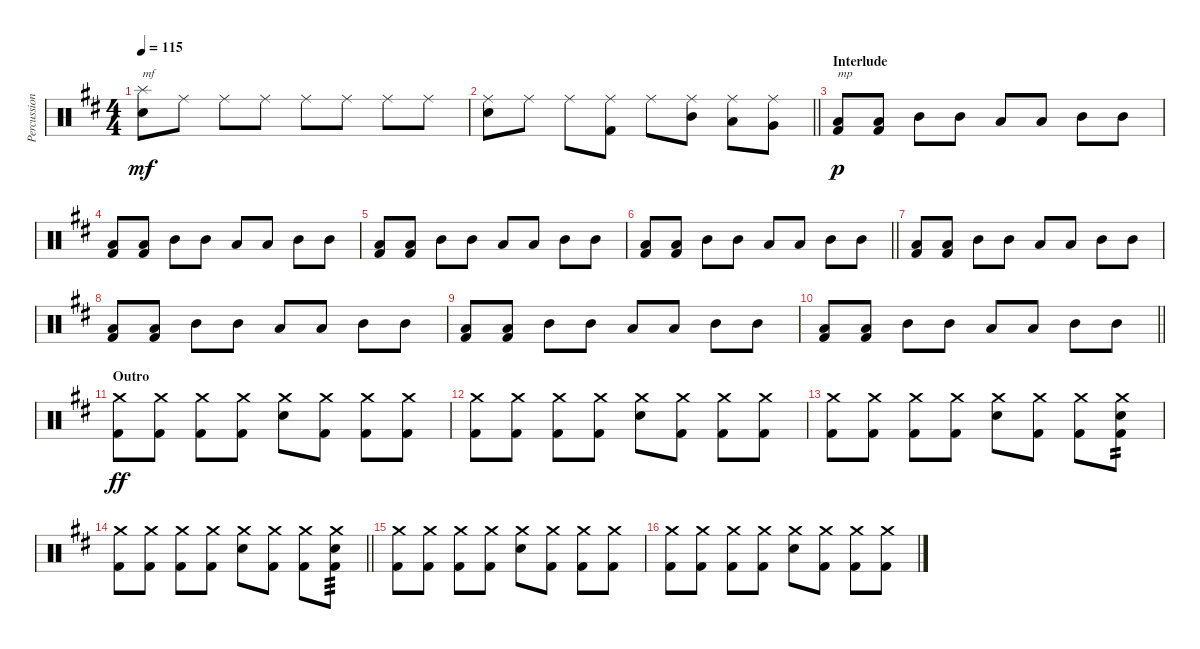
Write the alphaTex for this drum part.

\track ("Percussion" "Percussion") {instrument percussion}
\staff {score}
\articulation defaults
\ts (4 4)
\tempo 115
\clef neutral
\ks bminor
("Splash (hit)" "Snare (hit) 2").8{txt "mf" dy mf} "Ride (middle)".8 "Ride (middle)".8 "Ride (middle)".8 "Ride (middle)".8 "Ride (middle)".8 "Ride (middle)".8 "Ride (middle)".8 |
\barLineRight lightlight
("Ride (middle)" "Snare (hit) 2").8 "Ride (middle)".8 "Ride (middle)".8 ("Ride (middle)" "Kick (hit) 2").8 "Ride (middle)".8 ("Ride (middle)" "Mid Tom (hit)").8 ("Ride (middle)" "Low Tom (hit)").8 ("Ride (middle)" "Very Low Tom (hit)").8 |
\section ("" "Interlude")
("Low Tom (hit)" "Kick (hit) 2").8{txt "mp" dy p} ("Low Tom (hit)" "Kick (hit) 2").8 "Mid Tom (hit)".8 "Mid Tom (hit)".8 "Low Tom (hit)".8 "Low Tom (hit)".8 "Mid Tom (hit)".8 "Mid Tom (hit)".8 |
("Low Tom (hit)" "Kick (hit) 2").8 ("Low Tom (hit)" "Kick (hit) 2").8 "Mid Tom (hit)".8 "Mid Tom (hit)".8 "Low Tom (hit)".8 "Low Tom (hit)".8 "Mid Tom (hit)".8 "Mid Tom (hit)".8 |
("Low Tom (hit)" "Kick (hit) 2").8 ("Low Tom (hit)" "Kick (hit) 2").8 "Mid Tom (hit)".8 "Mid Tom (hit)".8 "Low Tom (hit)".8 "Low Tom (hit)".8 "Mid Tom (hit)".8 "Mid Tom (hit)".8 |
\barLineRight lightlight
("Low Tom (hit)" "Kick (hit) 2").8 ("Low Tom (hit)" "Kick (hit) 2").8 "Mid Tom (hit)".8 "Mid Tom (hit)".8 "Low Tom (hit)".8 "Low Tom (hit)".8 "Mid Tom (hit)".8 "Mid Tom (hit)".8 |
\section ("" "")
("Low Tom (hit)" "Kick (hit) 2").8 ("Low Tom (hit)" "Kick (hit) 2").8 "Mid Tom (hit)".8 "Mid Tom (hit)".8 "Low Tom (hit)".8 "Low Tom (hit)".8 "Mid Tom (hit)".8 "Mid Tom (hit)".8 |
("Low Tom (hit)" "Kick (hit) 2").8 ("Low Tom (hit)" "Kick (hit) 2").8 "Mid Tom (hit)".8 "Mid Tom (hit)".8 "Low Tom (hit)".8 "Low Tom (hit)".8 "Mid Tom (hit)".8 "Mid Tom (hit)".8 |
("Low Tom (hit)" "Kick (hit) 2").8 ("Low Tom (hit)" "Kick (hit) 2").8 "Mid Tom (hit)".8 "Mid Tom (hit)".8 "Low Tom (hit)".8 "Low Tom (hit)".8 "Mid Tom (hit)".8 "Mid Tom (hit)".8 |
\barLineRight lightlight
("Low Tom (hit)" "Kick (hit) 2").8 ("Low Tom (hit)" "Kick (hit) 2").8 "Mid Tom (hit)".8 "Mid Tom (hit)".8 "Low Tom (hit)".8 "Low Tom (hit)".8 "Mid Tom (hit)".8 "Mid Tom (hit)".8 |
\section ("" "Outro")
("Crash medium (hit)" "Kick (hit) 2").8{dy ff} ("Crash medium (hit)" "Kick (hit) 2").8 ("Crash medium (hit)" "Kick (hit) 2").8 ("Crash medium (hit)" "Kick (hit) 2").8 ("Crash medium (hit)" "Snare (hit) 2").8 ("Crash medium (hit)" "Kick (hit) 2").8 ("Crash medium (hit)" "Kick (hit) 2").8 ("Crash medium (hit)" "Kick (hit) 2").8 |
("Crash medium (hit)" "Kick (hit) 2").8 ("Crash medium (hit)" "Kick (hit) 2").8 ("Crash medium (hit)" "Kick (hit) 2").8 ("Crash medium (hit)" "Kick (hit) 2").8 ("Crash medium (hit)" "Snare (hit) 2").8 ("Crash medium (hit)" "Kick (hit) 2").8 ("Crash medium (hit)" "Kick (hit) 2").8 ("Crash medium (hit)" "Kick (hit) 2").8 |
("Crash medium (hit)" "Kick (hit) 2").8 ("Crash medium (hit)" "Kick (hit) 2").8 ("Crash medium (hit)" "Kick (hit) 2").8 ("Crash medium (hit)" "Kick (hit) 2").8 ("Crash medium (hit)" "Snare (hit) 2").8 ("Crash medium (hit)" "Kick (hit) 2").8 ("Crash medium (hit)" "Kick (hit) 2").8 ("Crash medium (hit)" "Snare (hit) 2" "Kick (hit) 2").8{tp 2} |
\barLineRight lightlight
("Crash medium (hit)" "Kick (hit) 2").8 ("Crash medium (hit)" "Kick (hit) 2").8 ("Crash medium (hit)" "Kick (hit) 2").8 ("Crash medium (hit)" "Kick (hit) 2").8 ("Crash medium (hit)" "Snare (hit) 2").8 ("Crash medium (hit)" "Kick (hit) 2").8 ("Crash medium (hit)" "Kick (hit) 2").8 ("Crash medium (hit)" "Snare (hit) 2" "Kick (hit) 2").8{tp 3} |
\section ("" "")
("Crash medium (hit)" "Kick (hit) 2").8 ("Crash medium (hit)" "Kick (hit) 2").8 ("Crash medium (hit)" "Kick (hit) 2").8 ("Crash medium (hit)" "Kick (hit) 2").8 ("Crash medium (hit)" "Snare (hit) 2").8 ("Crash medium (hit)" "Kick (hit) 2").8 ("Crash medium (hit)" "Kick (hit) 2").8 ("Crash medium (hit)" "Kick (hit) 2").8 |
("Crash medium (hit)" "Kick (hit) 2").8 ("Crash medium (hit)" "Kick (hit) 2").8 ("Crash medium (hit)" "Kick (hit) 2").8 ("Crash medium (hit)" "Kick (hit) 2").8 ("Crash medium (hit)" "Snare (hit) 2").8 ("Crash medium (hit)" "Kick (hit) 2").8 ("Crash medium (hit)" "Kick (hit) 2").8 ("Crash medium (hit)" "Kick (hit) 2").8
